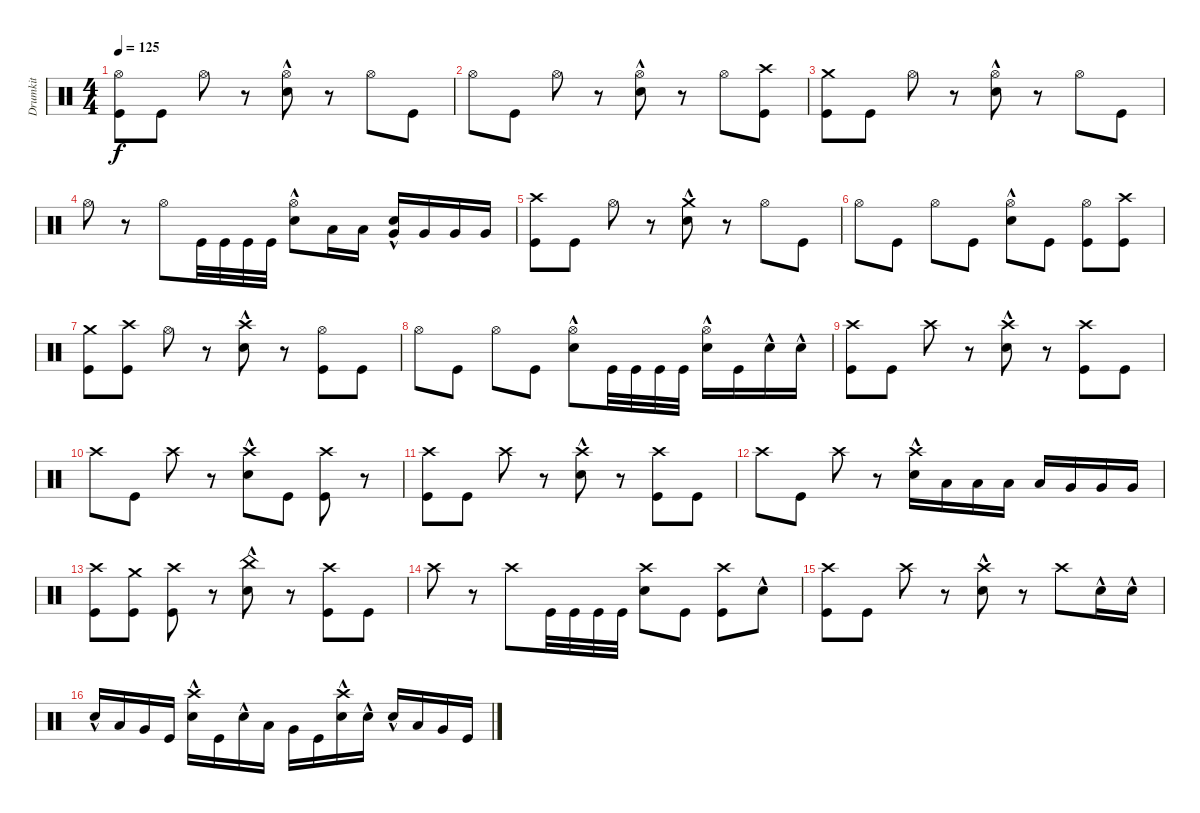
\track ("Drumkit" "Drumkit") {instrument percussion}
\staff {score}
\articulation defaults
\ts (4 4)
\tempo 125
\clef neutral
\ks c
("Kick (hit)" "Hi-Hat (open)").8{dy f} "Kick (hit)".8 "Hi-Hat (open)".8 r.8 ("Hi-Hat (open)" "Snare (hit) 2"{hac}).8 r.8 "Hi-Hat (open)".8 "Kick (hit)".8 |
"Hi-Hat (open)".8 "Kick (hit)".8 "Hi-Hat (open)".8 r.8 ("Snare (hit) 2"{hac} "Hi-Hat (open)").8 r.8 "Hi-Hat (open)".8 ("Kick (hit)" "Crash high (hit)").8 |
("Kick (hit)" "Crash medium (hit)").8 "Kick (hit)".8 "Hi-Hat (open)".8 r.8 ("Hi-Hat (open)" "Snare (hit) 2"{hac}).8 r.8 "Hi-Hat (open)".8 "Kick (hit)".8 |
"Hi-Hat (open)".8 r.8 "Hi-Hat (open)".8 "Kick (hit)".32 "Kick (hit)".32 "Kick (hit)".32 "Kick (hit)".32 ("Snare (hit) 2"{hac} "Hi-Hat (open)").8 "Low Tom (hit)".16 "Low Tom (hit)".16 ("Very Low Tom (hit)" "Snare (hit) 2"{hac}).16 "Very Low Tom (hit)".16 "Very Low Tom (hit)".16 "Very Low Tom (hit)".16 |
("Kick (hit)" "Crash high (hit)").8 "Kick (hit)".8 "Hi-Hat (open)".8 r.8 ("Snare (hit) 2"{hac} "Crash medium (hit)").8 r.8 "Hi-Hat (open)".8 "Kick (hit)".8 |
"Hi-Hat (open)".8 "Kick (hit)".8 "Hi-Hat (open)".8 "Kick (hit)".8 ("Snare (hit) 2"{hac} "Hi-Hat (open)").8 "Kick (hit)".8 ("Hi-Hat (open)" "Kick (hit)").8 ("Kick (hit)" "Crash high (hit)").8 |
("Crash medium (hit)" "Kick (hit)").8 ("Crash high (hit)" "Kick (hit)").8 "Hi-Hat (open)".8 r.8 ("Snare (hit) 2"{hac} "Crash high (hit)").8 r.8 ("Hi-Hat (open)" "Kick (hit)").8 "Kick (hit)".8 |
"Hi-Hat (open)".8 "Kick (hit)".8 "Hi-Hat (open)".8 "Kick (hit)".8 ("Hi-Hat (open)" "Snare (hit) 2"{hac}).8 "Kick (hit)".32 "Kick (hit)".32 "Kick (hit)".32 "Kick (hit)".32 ("Snare (hit) 2"{hac} "Hi-Hat (open)").16 "Kick (hit)".16 "Snare (hit) 2"{hac}.16 "Snare (hit) 2"{hac}.16 |
("Crash high (hit)" "Kick (hit)").8 "Kick (hit)".8 "Crash high (hit)".8 r.8 ("Crash high (hit)" "Snare (hit) 2"{hac}).8 r.8 ("Kick (hit)" "Crash high (hit)").8 "Kick (hit)".8 |
"Crash high (hit)".8 "Kick (hit)".8 "Crash high (hit)".8 r.8 ("Crash high (hit)" "Snare (hit) 2"{hac}).8 "Kick (hit)".8 ("Kick (hit)" "Crash high (hit)").8 r.8 |
("Crash high (hit)" "Kick (hit)").8 "Kick (hit)".8 "Crash high (hit)".8 r.8 ("Crash high (hit)" "Snare (hit) 2"{hac}).8 r.8 ("Kick (hit)" "Crash high (hit)").8 "Kick (hit)".8 |
"Crash high (hit)".8 "Kick (hit)".8 "Crash high (hit)".8 r.8 ("Crash high (hit)" "Snare (hit) 2"{hac}).16 "Low Tom (hit)".16 "Low Tom (hit)".16 "Low Tom (hit)".16 "Low Floor Tom (hit)".16 "Very Low Tom (hit)".16 "Very Low Tom (hit)".16 "Very Low Tom (hit)".16 |
("Crash high (hit)" "Kick (hit)").8 ("Crash medium (hit)" "Kick (hit)").8 ("Crash high (hit)" "Kick (hit)").8 r.8 ("China (hit)" "Snare (hit) 2"{hac}).8 r.8 ("Crash high (hit)" "Kick (hit)").8 "Kick (hit)".8 |
"Crash high (hit)".8 r.8 "Crash high (hit)".8 "Kick (hit)".32 "Kick (hit)".32 "Kick (hit)".32 "Kick (hit)".32 ("Snare (hit) 2" "Crash high (hit)").8 "Kick (hit)".8 ("Kick (hit)" "Crash high (hit)").8 "Snare (hit) 2"{hac}.8 |
("Crash high (hit)" "Kick (hit)").8 "Kick (hit)".8 "Crash high (hit)".8 r.8 ("Crash high (hit)" "Snare (hit) 2"{hac}).8 r.8 "Crash high (hit)".8 "Snare (hit) 2"{hac}.16 "Snare (hit) 2"{hac}.16 |
"Snare (hit) 2"{hac}.16 "Low Tom (hit)".16 "Very Low Tom (hit)".16 "Kick (hit)".16 ("Snare (hit) 2"{hac} "Crash high (hit)").16 "Kick (hit)".16 "Snare (hit) 2"{hac}.16 "Low Tom (hit)".16 "Very Low Tom (hit)".16 "Kick (hit)".16 ("Snare (hit) 2"{hac} "Crash high (hit)").16 "Snare (hit) 2"{hac}.16 "Snare (hit) 2"{hac}.16 "Low Tom (hit)".16 "Very Low Tom (hit)".16 "Kick (hit)".16
